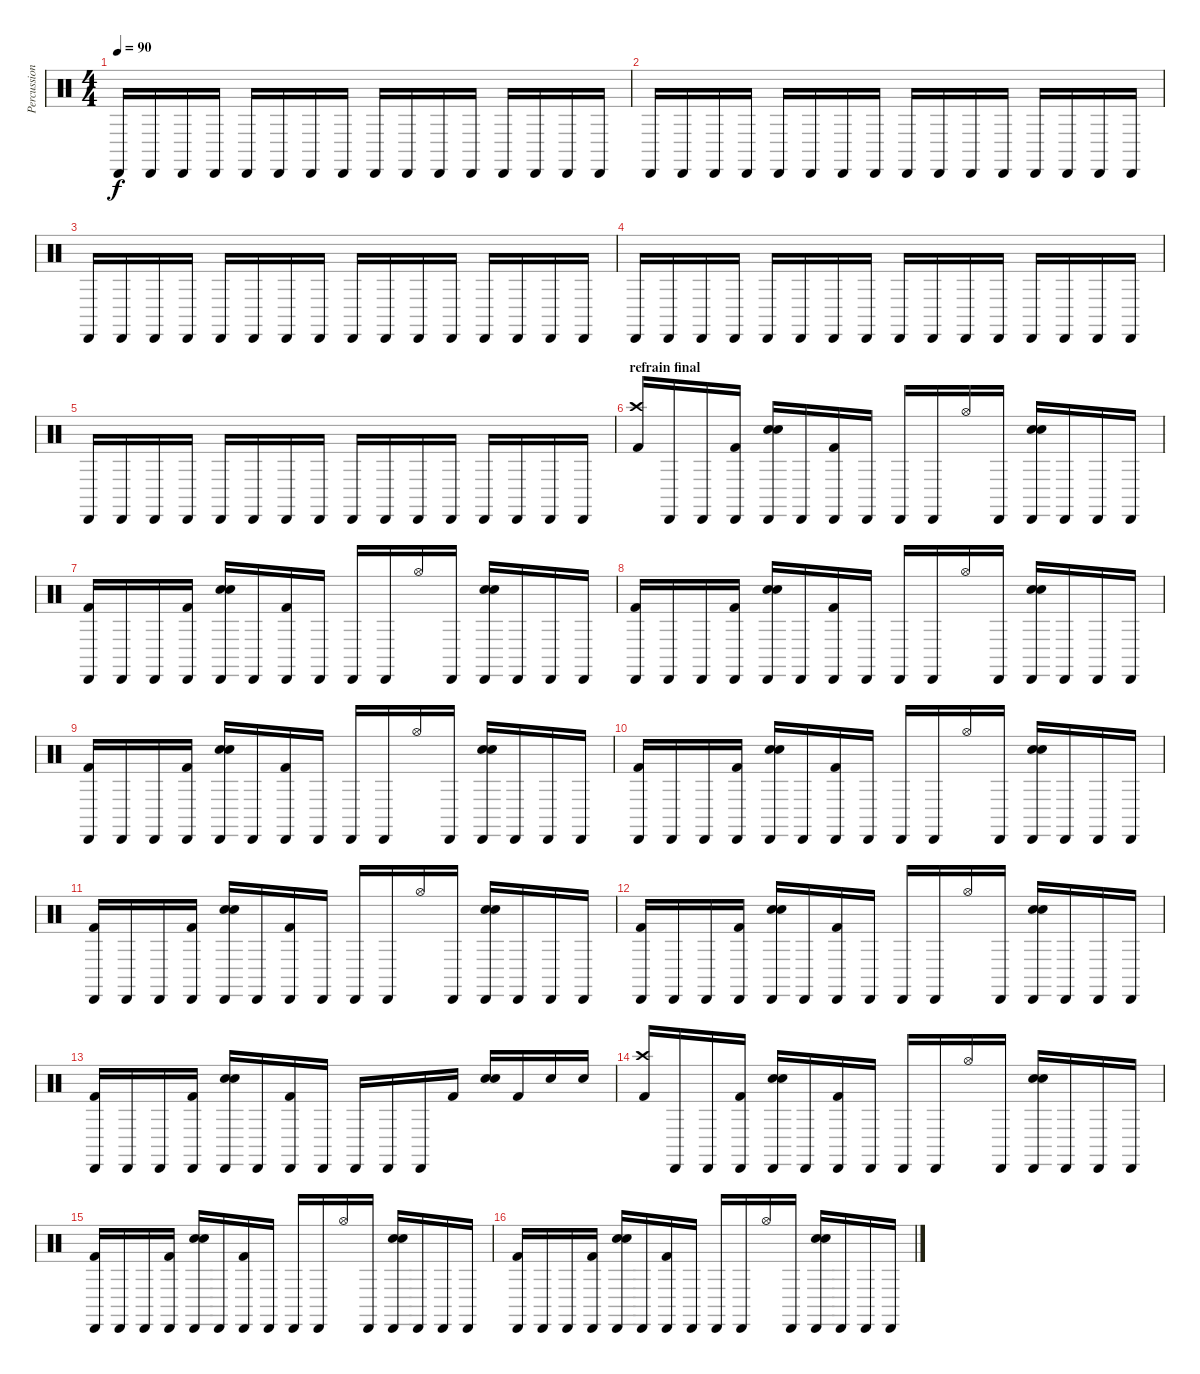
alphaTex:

\track ("Percussions" "Percussion") {instrument percussion}
\staff {score}
\articulation defaults
\ts (4 4)
\tempo 90
\clef neutral
\ks c "Cabasa (hit)".16{dy f} "Cabasa (hit)".16 "Cabasa (hit)".16 "Cabasa (hit)".16 "Cabasa (hit)".16 "Cabasa (hit)".16 "Cabasa (hit)".16 "Cabasa (hit)".16 "Cabasa (hit)".16 "Cabasa (hit)".16 "Cabasa (hit)".16 "Cabasa (hit)".16 "Cabasa (hit)".16 "Cabasa (hit)".16 "Cabasa (hit)".16 "Cabasa (hit)".16
|
"Cabasa (hit)".16 "Cabasa (hit)".16 "Cabasa (hit)".16 "Cabasa (hit)".16 "Cabasa (hit)".16 "Cabasa (hit)".16 "Cabasa (hit)".16 "Cabasa (hit)".16 "Cabasa (hit)".16 "Cabasa (hit)".16 "Cabasa (hit)".16 "Cabasa (hit)".16 "Cabasa (hit)".16 "Cabasa (hit)".16 "Cabasa (hit)".16 "Cabasa (hit)".16 |
"Cabasa (hit)".16 "Cabasa (hit)".16 "Cabasa (hit)".16 "Cabasa (hit)".16 "Cabasa (hit)".16 "Cabasa (hit)".16 "Cabasa (hit)".16 "Cabasa (hit)".16 "Cabasa (hit)".16 "Cabasa (hit)".16 "Cabasa (hit)".16 "Cabasa (hit)".16 "Cabasa (hit)".16 "Cabasa (hit)".16 "Cabasa (hit)".16 "Cabasa (hit)".16 |
"Cabasa (hit)".16 "Cabasa (hit)".16 "Cabasa (hit)".16 "Cabasa (hit)".16 "Cabasa (hit)".16 "Cabasa (hit)".16 "Cabasa (hit)".16 "Cabasa (hit)".16 "Cabasa (hit)".16 "Cabasa (hit)".16 "Cabasa (hit)".16 "Cabasa (hit)".16 "Cabasa (hit)".16 "Cabasa (hit)".16 "Cabasa (hit)".16 "Cabasa (hit)".16 |
"Cabasa (hit)".16 "Cabasa (hit)".16 "Cabasa (hit)".16 "Cabasa (hit)".16 "Cabasa (hit)".16 "Cabasa (hit)".16 "Cabasa (hit)".16 "Cabasa (hit)".16 "Cabasa (hit)".16 "Cabasa (hit)".16 "Cabasa (hit)".16 "Cabasa (hit)".16 "Cabasa (hit)".16 "Cabasa (hit)".16 "Cabasa (hit)".16 "Cabasa (hit)".16 |
\section ("" "refrain final")
("Crash high (hit)" "Kick (hit) 2").16 "Cabasa (hit)".16 "Cabasa (hit)".16 ("Cabasa (hit)" "Kick (hit) 2").16 ("Cabasa (hit)" "Hand Clap (hit)" "Electric Snare (hit)").16 "Cabasa (hit)".16 ("Cabasa (hit)" "Kick (hit) 2").16 "Cabasa (hit)".16 "Cabasa (hit)".16 "Cabasa (hit)".16 "Hi-Hat (open)".16 "Cabasa (hit)".16 ("Cabasa (hit)" "Hand Clap (hit)" "Electric Snare (hit)").16 "Cabasa (hit)".16 "Cabasa (hit)".16 "Cabasa (hit)".16 |
("Cabasa (hit)" "Kick (hit) 2").16 "Cabasa (hit)".16 "Cabasa (hit)".16 ("Cabasa (hit)" "Kick (hit) 2").16 ("Cabasa (hit)" "Hand Clap (hit)" "Electric Snare (hit)").16 "Cabasa (hit)".16 ("Cabasa (hit)" "Kick (hit) 2").16 "Cabasa (hit)".16 "Cabasa (hit)".16 "Cabasa (hit)".16 "Hi-Hat (open)".16 "Cabasa (hit)".16 ("Cabasa (hit)" "Hand Clap (hit)" "Electric Snare (hit)").16 "Cabasa (hit)".16 "Cabasa (hit)".16 "Cabasa (hit)".16 |
("Cabasa (hit)" "Kick (hit) 2").16 "Cabasa (hit)".16 "Cabasa (hit)".16 ("Cabasa (hit)" "Kick (hit) 2").16 ("Cabasa (hit)" "Hand Clap (hit)" "Electric Snare (hit)").16 "Cabasa (hit)".16 ("Cabasa (hit)" "Kick (hit) 2").16 "Cabasa (hit)".16 "Cabasa (hit)".16 "Cabasa (hit)".16 "Hi-Hat (open)".16 "Cabasa (hit)".16 ("Cabasa (hit)" "Hand Clap (hit)" "Electric Snare (hit)").16 "Cabasa (hit)".16 "Cabasa (hit)".16 "Cabasa (hit)".16 |
("Cabasa (hit)" "Kick (hit) 2").16 "Cabasa (hit)".16 "Cabasa (hit)".16 ("Cabasa (hit)" "Kick (hit) 2").16 ("Cabasa (hit)" "Hand Clap (hit)" "Electric Snare (hit)").16 "Cabasa (hit)".16 ("Cabasa (hit)" "Kick (hit) 2").16 "Cabasa (hit)".16 "Cabasa (hit)".16 "Cabasa (hit)".16 "Hi-Hat (open)".16 "Cabasa (hit)".16 ("Cabasa (hit)" "Hand Clap (hit)" "Electric Snare (hit)").16 "Cabasa (hit)".16 "Cabasa (hit)".16 "Cabasa (hit)".16 |
("Cabasa (hit)" "Kick (hit) 2").16 "Cabasa (hit)".16 "Cabasa (hit)".16 ("Cabasa (hit)" "Kick (hit) 2").16 ("Cabasa (hit)" "Hand Clap (hit)" "Electric Snare (hit)").16 "Cabasa (hit)".16 ("Cabasa (hit)" "Kick (hit) 2").16 "Cabasa (hit)".16 "Cabasa (hit)".16 "Cabasa (hit)".16 "Hi-Hat (open)".16 "Cabasa (hit)".16 ("Cabasa (hit)" "Hand Clap (hit)" "Electric Snare (hit)").16 "Cabasa (hit)".16 "Cabasa (hit)".16 "Cabasa (hit)".16 |
("Cabasa (hit)" "Kick (hit) 2").16 "Cabasa (hit)".16 "Cabasa (hit)".16 ("Cabasa (hit)" "Kick (hit) 2").16 ("Cabasa (hit)" "Hand Clap (hit)" "Electric Snare (hit)").16 "Cabasa (hit)".16 ("Cabasa (hit)" "Kick (hit) 2").16 "Cabasa (hit)".16 "Cabasa (hit)".16 "Cabasa (hit)".16 "Hi-Hat (open)".16 "Cabasa (hit)".16 ("Cabasa (hit)" "Hand Clap (hit)" "Electric Snare (hit)").16 "Cabasa (hit)".16 "Cabasa (hit)".16 "Cabasa (hit)".16 |
("Cabasa (hit)" "Kick (hit) 2").16 "Cabasa (hit)".16 "Cabasa (hit)".16 ("Cabasa (hit)" "Kick (hit) 2").16 ("Cabasa (hit)" "Hand Clap (hit)" "Electric Snare (hit)").16 "Cabasa (hit)".16 ("Cabasa (hit)" "Kick (hit) 2").16 "Cabasa (hit)".16 "Cabasa (hit)".16 "Cabasa (hit)".16 "Hi-Hat (open)".16 "Cabasa (hit)".16 ("Cabasa (hit)" "Hand Clap (hit)" "Electric Snare (hit)").16 "Cabasa (hit)".16 "Cabasa (hit)".16 "Cabasa (hit)".16 |
("Cabasa (hit)" "Kick (hit) 2").16 "Cabasa (hit)".16 "Cabasa (hit)".16 ("Cabasa (hit)" "Kick (hit) 2").16 ("Cabasa (hit)" "Hand Clap (hit)" "Electric Snare (hit)").16 "Cabasa (hit)".16 ("Cabasa (hit)" "Kick (hit) 2").16 "Cabasa (hit)".16 "Cabasa (hit)".16 "Cabasa (hit)".16 "Cabasa (hit)".16 "Kick (hit) 2".16 ("Hand Clap (hit)" "Electric Snare (hit)").16 "Kick (hit) 2".16 "Electric Snare (hit)".16 "Electric Snare (hit)".16 |
("Crash high (hit)" "Kick (hit) 2").16 "Cabasa (hit)".16 "Cabasa (hit)".16 ("Cabasa (hit)" "Kick (hit) 2").16 ("Cabasa (hit)" "Hand Clap (hit)" "Electric Snare (hit)").16 "Cabasa (hit)".16 ("Cabasa (hit)" "Kick (hit) 2").16 "Cabasa (hit)".16 "Cabasa (hit)".16 "Cabasa (hit)".16 "Hi-Hat (open)".16 "Cabasa (hit)".16 ("Cabasa (hit)" "Hand Clap (hit)" "Electric Snare (hit)").16 "Cabasa (hit)".16 "Cabasa (hit)".16 "Cabasa (hit)".16 |
("Cabasa (hit)" "Kick (hit) 2").16 "Cabasa (hit)".16 "Cabasa (hit)".16 ("Cabasa (hit)" "Kick (hit) 2").16 ("Cabasa (hit)" "Hand Clap (hit)" "Electric Snare (hit)").16 "Cabasa (hit)".16 ("Cabasa (hit)" "Kick (hit) 2").16 "Cabasa (hit)".16 "Cabasa (hit)".16 "Cabasa (hit)".16 "Hi-Hat (open)".16 "Cabasa (hit)".16 ("Cabasa (hit)" "Hand Clap (hit)" "Electric Snare (hit)").16 "Cabasa (hit)".16 "Cabasa (hit)".16 "Cabasa (hit)".16 |
("Cabasa (hit)" "Kick (hit) 2").16 "Cabasa (hit)".16 "Cabasa (hit)".16 ("Cabasa (hit)" "Kick (hit) 2").16 ("Cabasa (hit)" "Hand Clap (hit)" "Electric Snare (hit)").16 "Cabasa (hit)".16 ("Cabasa (hit)" "Kick (hit) 2").16 "Cabasa (hit)".16 "Cabasa (hit)".16 "Cabasa (hit)".16 "Hi-Hat (open)".16 "Cabasa (hit)".16 ("Cabasa (hit)" "Hand Clap (hit)" "Electric Snare (hit)").16 "Cabasa (hit)".16 "Cabasa (hit)".16 "Cabasa (hit)".16
